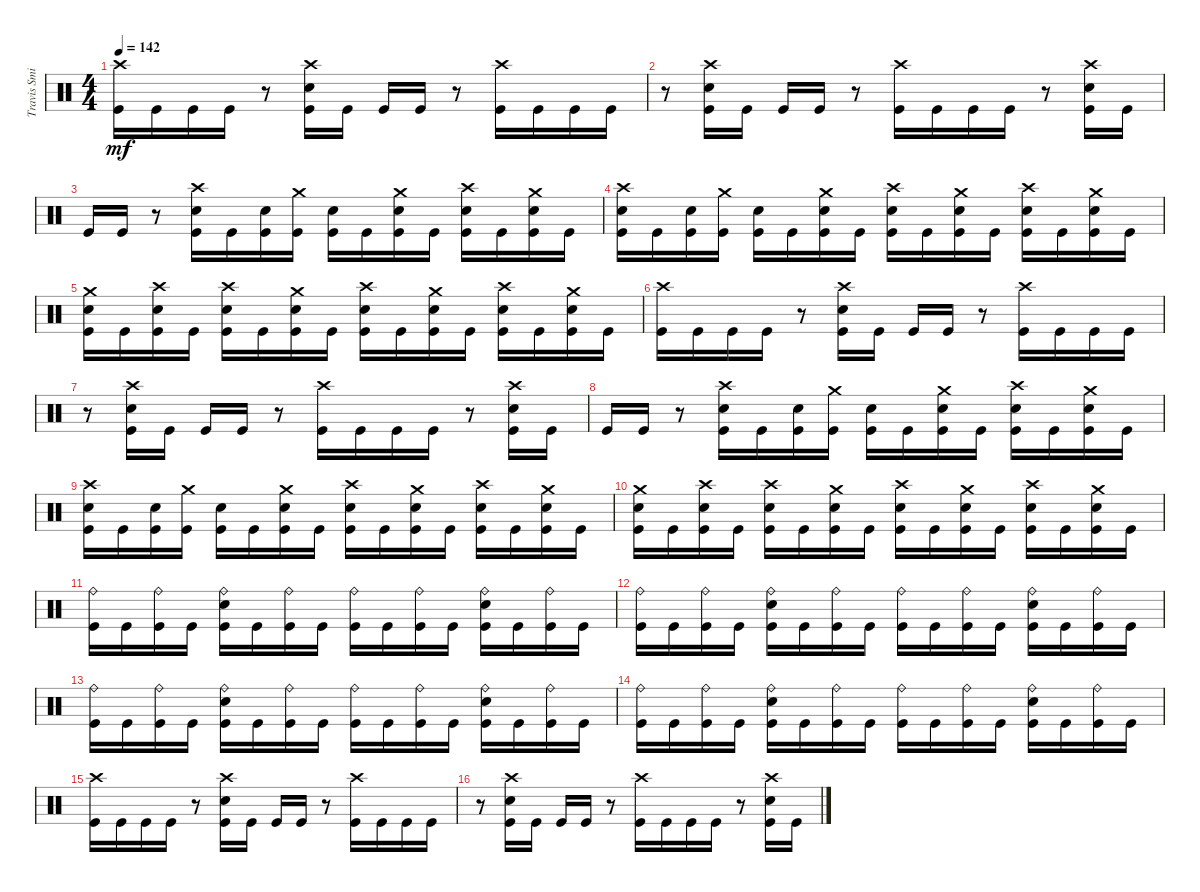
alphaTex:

\track ("Travis Smith" "Travis Smi") {instrument percussion}
\staff {score}
\articulation defaults
\ts (4 4)
\section ("" "")
\tempo 142
\clef neutral
\ks c
("Crash high (hit)" "Kick (hit)").16{dy mf} "Kick (hit)".16 "Kick (hit)".16 "Kick (hit)".16 r.8 ("Crash high (hit)" "Snare (hit) 2" "Kick (hit)").16 "Kick (hit)".16 "Kick (hit)".16 "Kick (hit)".16 r.8 ("Crash high (hit)" "Kick (hit)").16 "Kick (hit)".16 "Kick (hit)".16 "Kick (hit)".16 |
r.8 ("Crash high (hit)" "Snare (hit) 2" "Kick (hit)").16 "Kick (hit)".16 "Kick (hit)".16 "Kick (hit)".16 r.8 ("Crash high (hit)" "Kick (hit)").16 "Kick (hit)".16 "Kick (hit)".16 "Kick (hit)".16 r.8 ("Crash high (hit)" "Snare (hit) 2" "Kick (hit)").16 "Kick (hit)".16 |
"Kick (hit)".16 "Kick (hit)".16 r.8 ("Crash high (hit)" "Snare (hit) 2" "Kick (hit)").16 "Kick (hit)".16 ("Snare (hit) 2" "Kick (hit)").16 ("Crash medium (hit)" "Kick (hit)").16 ("Snare (hit) 2" "Kick (hit)").16 "Kick (hit)".16 ("Crash medium (hit)" "Snare (hit) 2" "Kick (hit)").16 "Kick (hit)".16 ("Crash high (hit)" "Snare (hit) 2" "Kick (hit)").16 "Kick (hit)".16 ("Crash medium (hit)" "Snare (hit) 2" "Kick (hit)").16 "Kick (hit)".16 |
("Crash high (hit)" "Snare (hit) 2" "Kick (hit)").16 "Kick (hit)".16 ("Snare (hit) 2" "Kick (hit)").16 ("Crash medium (hit)" "Kick (hit)").16 ("Snare (hit) 2" "Kick (hit)").16 "Kick (hit)".16 ("Crash medium (hit)" "Snare (hit) 2" "Kick (hit)").16 "Kick (hit)".16 ("Crash high (hit)" "Snare (hit) 2" "Kick (hit)").16 "Kick (hit)".16 ("Crash medium (hit)" "Snare (hit) 2" "Kick (hit)").16 "Kick (hit)".16 ("Crash high (hit)" "Snare (hit) 2" "Kick (hit)").16 "Kick (hit)".16 ("Crash medium (hit)" "Snare (hit) 2" "Kick (hit)").16 "Kick (hit)".16 |
("Crash medium (hit)" "Snare (hit) 2" "Kick (hit)").16 "Kick (hit)".16 ("Crash high (hit)" "Snare (hit) 2" "Kick (hit)").16 "Kick (hit)".16 ("Crash high (hit)" "Snare (hit) 2" "Kick (hit)").16 "Kick (hit)".16 ("Crash medium (hit)" "Snare (hit) 2" "Kick (hit)").16 "Kick (hit)".16 ("Crash high (hit)" "Snare (hit) 2" "Kick (hit)").16 "Kick (hit)".16 ("Crash medium (hit)" "Snare (hit) 2" "Kick (hit)").16 "Kick (hit)".16 ("Crash high (hit)" "Snare (hit) 2" "Kick (hit)").16 "Kick (hit)".16 ("Crash medium (hit)" "Snare (hit) 2" "Kick (hit)").16 "Kick (hit)".16 |
("Crash high (hit)" "Kick (hit)").16 "Kick (hit)".16 "Kick (hit)".16 "Kick (hit)".16 r.8 ("Crash high (hit)" "Snare (hit) 2" "Kick (hit)").16 "Kick (hit)".16 "Kick (hit)".16 "Kick (hit)".16 r.8 ("Crash high (hit)" "Kick (hit)").16 "Kick (hit)".16 "Kick (hit)".16 "Kick (hit)".16 |
r.8 ("Crash high (hit)" "Snare (hit) 2" "Kick (hit)").16 "Kick (hit)".16 "Kick (hit)".16 "Kick (hit)".16 r.8 ("Crash high (hit)" "Kick (hit)").16 "Kick (hit)".16 "Kick (hit)".16 "Kick (hit)".16 r.8 ("Crash high (hit)" "Snare (hit) 2" "Kick (hit)").16 "Kick (hit)".16 |
"Kick (hit)".16 "Kick (hit)".16 r.8 ("Crash high (hit)" "Snare (hit) 2" "Kick (hit)").16 "Kick (hit)".16 ("Snare (hit) 2" "Kick (hit)").16 ("Crash medium (hit)" "Kick (hit)").16 ("Snare (hit) 2" "Kick (hit)").16 "Kick (hit)".16 ("Crash medium (hit)" "Snare (hit) 2" "Kick (hit)").16 "Kick (hit)".16 ("Crash high (hit)" "Snare (hit) 2" "Kick (hit)").16 "Kick (hit)".16 ("Crash medium (hit)" "Snare (hit) 2" "Kick (hit)").16 "Kick (hit)".16 |
("Crash high (hit)" "Snare (hit) 2" "Kick (hit)").16 "Kick (hit)".16 ("Snare (hit) 2" "Kick (hit)").16 ("Crash medium (hit)" "Kick (hit)").16 ("Snare (hit) 2" "Kick (hit)").16 "Kick (hit)".16 ("Crash medium (hit)" "Snare (hit) 2" "Kick (hit)").16 "Kick (hit)".16 ("Crash high (hit)" "Snare (hit) 2" "Kick (hit)").16 "Kick (hit)".16 ("Crash medium (hit)" "Snare (hit) 2" "Kick (hit)").16 "Kick (hit)".16 ("Crash high (hit)" "Snare (hit) 2" "Kick (hit)").16 "Kick (hit)".16 ("Crash medium (hit)" "Snare (hit) 2" "Kick (hit)").16 "Kick (hit)".16 |
("Crash medium (hit)" "Snare (hit) 2" "Kick (hit)").16 "Kick (hit)".16 ("Crash high (hit)" "Snare (hit) 2" "Kick (hit)").16 "Kick (hit)".16 ("Crash high (hit)" "Snare (hit) 2" "Kick (hit)").16 "Kick (hit)".16 ("Crash medium (hit)" "Snare (hit) 2" "Kick (hit)").16 "Kick (hit)".16 ("Crash high (hit)" "Snare (hit) 2" "Kick (hit)").16 "Kick (hit)".16 ("Crash medium (hit)" "Snare (hit) 2" "Kick (hit)").16 "Kick (hit)".16 ("Crash high (hit)" "Snare (hit) 2" "Kick (hit)").16 "Kick (hit)".16 ("Crash medium (hit)" "Snare (hit) 2" "Kick (hit)").16 "Kick (hit)".16 |
("Ride (bell)" "Kick (hit)").16 "Kick (hit)".16 ("Ride (bell)" "Kick (hit)").16 "Kick (hit)".16 ("Ride (bell)" "Snare (hit) 2" "Kick (hit)").16 "Kick (hit)".16 ("Ride (bell)" "Kick (hit)").16 "Kick (hit)".16 ("Ride (bell)" "Kick (hit)").16 "Kick (hit)".16 ("Ride (bell)" "Kick (hit)").16 "Kick (hit)".16 ("Ride (bell)" "Snare (hit) 2" "Kick (hit)").16 "Kick (hit)".16 ("Ride (bell)" "Kick (hit)").16 "Kick (hit)".16 |
("Ride (bell)" "Kick (hit)").16 "Kick (hit)".16 ("Ride (bell)" "Kick (hit)").16 "Kick (hit)".16 ("Ride (bell)" "Snare (hit) 2" "Kick (hit)").16 "Kick (hit)".16 ("Ride (bell)" "Kick (hit)").16 "Kick (hit)".16 ("Ride (bell)" "Kick (hit)").16 "Kick (hit)".16 ("Ride (bell)" "Kick (hit)").16 "Kick (hit)".16 ("Ride (bell)" "Snare (hit) 2" "Kick (hit)").16 "Kick (hit)".16 ("Ride (bell)" "Kick (hit)").16 "Kick (hit)".16 |
("Ride (bell)" "Kick (hit)").16 "Kick (hit)".16 ("Ride (bell)" "Kick (hit)").16 "Kick (hit)".16 ("Ride (bell)" "Snare (hit) 2" "Kick (hit)").16 "Kick (hit)".16 ("Ride (bell)" "Kick (hit)").16 "Kick (hit)".16 ("Ride (bell)" "Kick (hit)").16 "Kick (hit)".16 ("Ride (bell)" "Kick (hit)").16 "Kick (hit)".16 ("Ride (bell)" "Snare (hit) 2" "Kick (hit)").16 "Kick (hit)".16 ("Ride (bell)" "Kick (hit)").16 "Kick (hit)".16 |
("Ride (bell)" "Kick (hit)").16 "Kick (hit)".16 ("Ride (bell)" "Kick (hit)").16 "Kick (hit)".16 ("Ride (bell)" "Snare (hit) 2" "Kick (hit)").16 "Kick (hit)".16 ("Ride (bell)" "Kick (hit)").16 "Kick (hit)".16 ("Ride (bell)" "Kick (hit)").16 "Kick (hit)".16 ("Ride (bell)" "Kick (hit)").16 "Kick (hit)".16 ("Ride (bell)" "Snare (hit) 2" "Kick (hit)").16 "Kick (hit)".16 ("Ride (bell)" "Kick (hit)").16 "Kick (hit)".16 |
("Crash high (hit)" "Kick (hit)").16 "Kick (hit)".16 "Kick (hit)".16 "Kick (hit)".16 r.8 ("Crash high (hit)" "Snare (hit) 2" "Kick (hit)").16 "Kick (hit)".16 "Kick (hit)".16 "Kick (hit)".16 r.8 ("Crash high (hit)" "Kick (hit)").16 "Kick (hit)".16 "Kick (hit)".16 "Kick (hit)".16 |
r.8 ("Crash high (hit)" "Snare (hit) 2" "Kick (hit)").16 "Kick (hit)".16 "Kick (hit)".16 "Kick (hit)".16 r.8 ("Crash high (hit)" "Kick (hit)").16 "Kick (hit)".16 "Kick (hit)".16 "Kick (hit)".16 r.8 ("Crash high (hit)" "Snare (hit) 2" "Kick (hit)").16 "Kick (hit)".16
